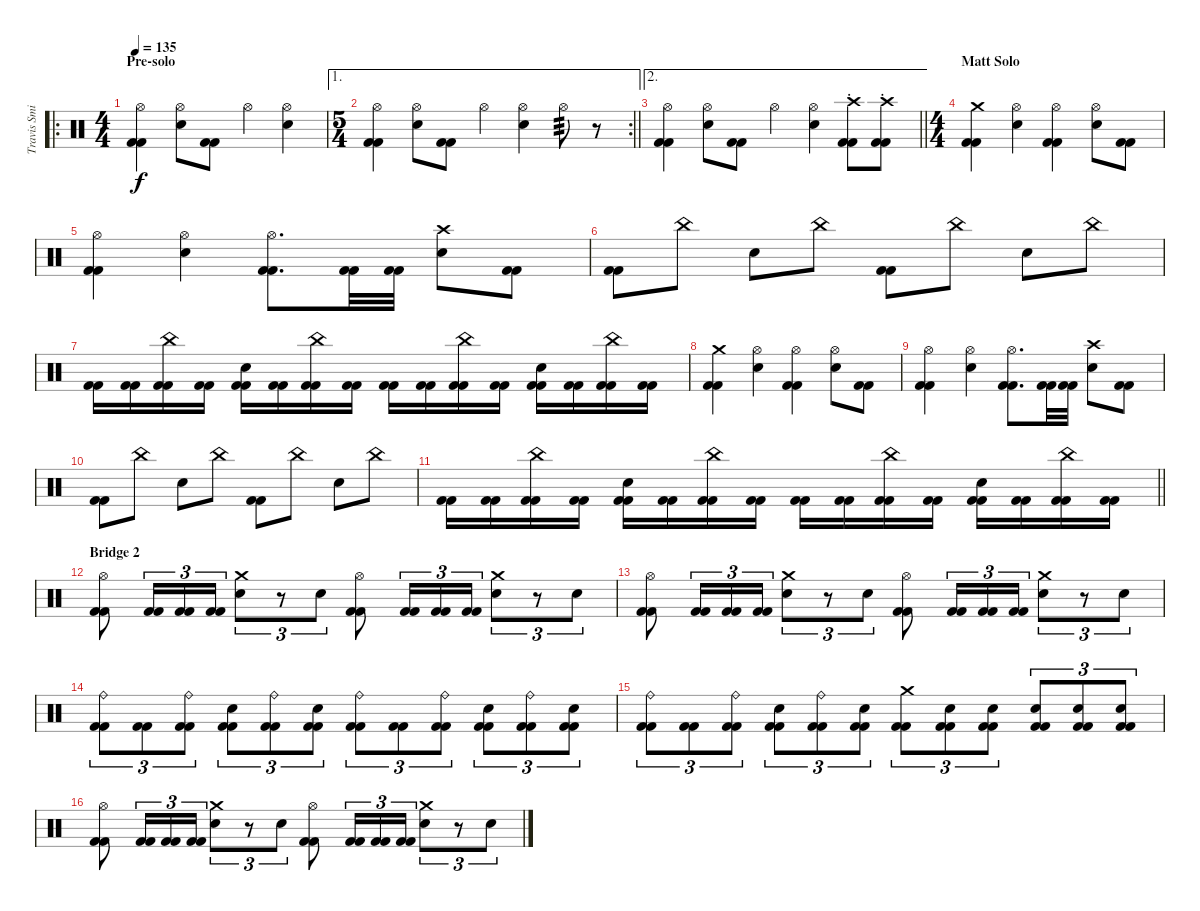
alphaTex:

\track ("Travis Smith" "Travis Smi") {instrument percussion}
\staff {score}
\articulation defaults
\ro
\ts (4 4)
\section ("" "Pre-solo")
\tempo 135
\clef neutral
\ks c
("Hi-Hat (open)" "Kick (hit) 2" "Kick (hit) 2").4{dy f} ("Hi-Hat (open)" "Electric Snare (hit)").8 ("Kick (hit) 2" "Kick (hit) 2").8 "Hi-Hat (open)".4 ("Hi-Hat (open)" "Electric Snare (hit)").4 |
\ae 1
\rc 2
\ts (5 4)
\barLineRight lightlight
("Hi-Hat (open)" "Kick (hit) 2" "Kick (hit) 2").4 ("Hi-Hat (open)" "Electric Snare (hit)").8 ("Kick (hit) 2" "Kick (hit) 2").8 "Hi-Hat (open)".4 ("Hi-Hat (open)" "Electric Snare (hit)").4 "Hi-Hat (open)".8{tp 3} r.8 |
\ae 2
\barLineRight lightlight
("Hi-Hat (open)" "Kick (hit) 2" "Kick (hit) 2").4 ("Hi-Hat (open)" "Electric Snare (hit)").8 ("Kick (hit) 2" "Kick (hit) 2").8 "Hi-Hat (open)".4 ("Hi-Hat (open)" "Electric Snare (hit)").4 ("Crash high (hit)"{st} "Kick (hit) 2" "Kick (hit) 2").8 ("Crash high (hit)"{st} "Kick (hit) 2" "Kick (hit) 2").8 |
\ts (4 4)
\section ("" "Matt Solo")
("Crash medium (hit)" "Kick (hit) 2" "Kick (hit) 2").4 ("Hi-Hat (open)" "Electric Snare (hit)").4 ("Hi-Hat (open)" "Kick (hit) 2" "Kick (hit) 2").4 ("Hi-Hat (open)" "Electric Snare (hit)").8 ("Kick (hit) 2" "Kick (hit) 2").8 |
("Hi-Hat (open)" "Kick (hit) 2" "Kick (hit) 2").4 ("Hi-Hat (open)" "Electric Snare (hit)").4 ("Hi-Hat (open)" "Kick (hit) 2" "Kick (hit) 2").8{d} ("Kick (hit) 2" "Kick (hit) 2").32 ("Kick (hit) 2" "Kick (hit) 2").32 ("Crash high (hit)" "Electric Snare (hit)").8 ("Kick (hit) 2" "Kick (hit) 2").8 |
("Kick (hit) 2" "Kick (hit) 2").8 "China (hit)".8 "Electric Snare (hit)".8 "China (hit)".8 ("Kick (hit) 2" "Kick (hit) 2").8 "China (hit)".8 "Electric Snare (hit)".8 "China (hit)".8 |
("Kick (hit) 2" "Kick (hit) 2").16 ("Kick (hit) 2" "Kick (hit) 2").16 ("China (hit)" "Kick (hit) 2" "Kick (hit) 2").16 ("Kick (hit) 2" "Kick (hit) 2").16 ("Electric Snare (hit)" "Kick (hit) 2" "Kick (hit) 2").16 ("Kick (hit) 2" "Kick (hit) 2").16 ("China (hit)" "Kick (hit) 2" "Kick (hit) 2").16 ("Kick (hit) 2" "Kick (hit) 2").16 ("Kick (hit) 2" "Kick (hit) 2").16 ("Kick (hit) 2" "Kick (hit) 2").16 ("China (hit)" "Kick (hit) 2" "Kick (hit) 2").16 ("Kick (hit) 2" "Kick (hit) 2").16 ("Electric Snare (hit)" "Kick (hit) 2" "Kick (hit) 2").16 ("Kick (hit) 2" "Kick (hit) 2").16 ("China (hit)" "Kick (hit) 2" "Kick (hit) 2").16 ("Kick (hit) 2" "Kick (hit) 2").16 |
("Crash medium (hit)" "Kick (hit) 2" "Kick (hit) 2").4 ("Hi-Hat (open)" "Electric Snare (hit)").4 ("Hi-Hat (open)" "Kick (hit) 2" "Kick (hit) 2").4 ("Hi-Hat (open)" "Electric Snare (hit)").8 ("Kick (hit) 2" "Kick (hit) 2").8 |
("Hi-Hat (open)" "Kick (hit) 2" "Kick (hit) 2").4 ("Hi-Hat (open)" "Electric Snare (hit)").4 ("Hi-Hat (open)" "Kick (hit) 2" "Kick (hit) 2").8{d} ("Kick (hit) 2" "Kick (hit) 2").32 ("Kick (hit) 2" "Kick (hit) 2").32 ("Crash high (hit)" "Electric Snare (hit)").8 ("Kick (hit) 2" "Kick (hit) 2").8 |
("Kick (hit) 2" "Kick (hit) 2").8 "China (hit)".8 "Electric Snare (hit)".8 "China (hit)".8 ("Kick (hit) 2" "Kick (hit) 2").8 "China (hit)".8 "Electric Snare (hit)".8 "China (hit)".8 |
\barLineRight lightlight
("Kick (hit) 2" "Kick (hit) 2").16 ("Kick (hit) 2" "Kick (hit) 2").16 ("China (hit)" "Kick (hit) 2" "Kick (hit) 2").16 ("Kick (hit) 2" "Kick (hit) 2").16 ("Electric Snare (hit)" "Kick (hit) 2" "Kick (hit) 2").16 ("Kick (hit) 2" "Kick (hit) 2").16 ("China (hit)" "Kick (hit) 2" "Kick (hit) 2").16 ("Kick (hit) 2" "Kick (hit) 2").16 ("Kick (hit) 2" "Kick (hit) 2").16 ("Kick (hit) 2" "Kick (hit) 2").16 ("China (hit)" "Kick (hit) 2" "Kick (hit) 2").16 ("Kick (hit) 2" "Kick (hit) 2").16 ("Electric Snare (hit)" "Kick (hit) 2" "Kick (hit) 2").16 ("Kick (hit) 2" "Kick (hit) 2").16 ("China (hit)" "Kick (hit) 2" "Kick (hit) 2").16 ("Kick (hit) 2" "Kick (hit) 2").16 |
\section ("" "Bridge 2")
("Hi-Hat (open)" "Kick (hit) 2" "Kick (hit) 2").8 ("Kick (hit) 2" "Kick (hit) 2").16{tu (3 2)} ("Kick (hit) 2" "Kick (hit) 2").16{tu (3 2)} ("Kick (hit) 2" "Kick (hit) 2").16{tu (3 2)} ("Crash medium (hit)" "Electric Snare (hit)").8{tu (3 2)} r.8{tu (3 2)} "Electric Snare (hit)".8{tu (3 2)} ("Hi-Hat (open)" "Kick (hit) 2" "Kick (hit) 2").8 ("Kick (hit) 2" "Kick (hit) 2").16{tu (3 2)} ("Kick (hit) 2" "Kick (hit) 2").16{tu (3 2)} ("Kick (hit) 2" "Kick (hit) 2").16{tu (3 2)} ("Crash medium (hit)" "Electric Snare (hit)").8{tu (3 2)} r.8{tu (3 2)} "Electric Snare (hit)".8{tu (3 2)} |
("Hi-Hat (open)" "Kick (hit) 2" "Kick (hit) 2").8 ("Kick (hit) 2" "Kick (hit) 2").16{tu (3 2)} ("Kick (hit) 2" "Kick (hit) 2").16{tu (3 2)} ("Kick (hit) 2" "Kick (hit) 2").16{tu (3 2)} ("Crash medium (hit)" "Electric Snare (hit)").8{tu (3 2)} r.8{tu (3 2)} "Electric Snare (hit)".8{tu (3 2)} ("Hi-Hat (open)" "Kick (hit) 2" "Kick (hit) 2").8 ("Kick (hit) 2" "Kick (hit) 2").16{tu (3 2)} ("Kick (hit) 2" "Kick (hit) 2").16{tu (3 2)} ("Kick (hit) 2" "Kick (hit) 2").16{tu (3 2)} ("Crash medium (hit)" "Electric Snare (hit)").8{tu (3 2)} r.8{tu (3 2)} "Electric Snare (hit)".8{tu (3 2)} |
("Ride (bell)" "Kick (hit) 2" "Kick (hit) 2").8{tu (3 2)} ("Kick (hit) 2" "Kick (hit) 2").8{tu (3 2)} ("Ride (bell)" "Kick (hit) 2" "Kick (hit) 2").8{tu (3 2)} ("Electric Snare (hit)" "Kick (hit) 2" "Kick (hit) 2").8{tu (3 2)} ("Ride (bell)" "Kick (hit) 2" "Kick (hit) 2").8{tu (3 2)} ("Electric Snare (hit)" "Kick (hit) 2" "Kick (hit) 2").8{tu (3 2)} ("Ride (bell)" "Kick (hit) 2" "Kick (hit) 2").8{tu (3 2)} ("Kick (hit) 2" "Kick (hit) 2").8{tu (3 2)} ("Ride (bell)" "Kick (hit) 2" "Kick (hit) 2").8{tu (3 2)} ("Electric Snare (hit)" "Kick (hit) 2" "Kick (hit) 2").8{tu (3 2)} ("Ride (bell)" "Kick (hit) 2" "Kick (hit) 2").8{tu (3 2)} ("Electric Snare (hit)" "Kick (hit) 2" "Kick (hit) 2").8{tu (3 2)} |
("Ride (bell)" "Kick (hit) 2" "Kick (hit) 2").8{tu (3 2)} ("Kick (hit) 2" "Kick (hit) 2").8{tu (3 2)} ("Ride (bell)" "Kick (hit) 2" "Kick (hit) 2").8{tu (3 2)} ("Electric Snare (hit)" "Kick (hit) 2" "Kick (hit) 2").8{tu (3 2)} ("Ride (bell)" "Kick (hit) 2" "Kick (hit) 2").8{tu (3 2)} ("Electric Snare (hit)" "Kick (hit) 2" "Kick (hit) 2").8{tu (3 2)} ("Crash medium (hit)" "Kick (hit) 2" "Kick (hit) 2").8{tu (3 2)} ("Electric Snare (hit)" "Kick (hit) 2" "Kick (hit) 2").8{tu (3 2)} ("Electric Snare (hit)" "Kick (hit) 2" "Kick (hit) 2").8{tu (3 2)} ("Electric Snare (hit)" "Kick (hit) 2" "Kick (hit) 2").8{tu (3 2)} ("Electric Snare (hit)" "Kick (hit) 2" "Kick (hit) 2").8{tu (3 2)} ("Electric Snare (hit)" "Kick (hit) 2" "Kick (hit) 2").8{tu (3 2)} |
("Hi-Hat (open)" "Kick (hit) 2" "Kick (hit) 2").8 ("Kick (hit) 2" "Kick (hit) 2").16{tu (3 2)} ("Kick (hit) 2" "Kick (hit) 2").16{tu (3 2)} ("Kick (hit) 2" "Kick (hit) 2").16{tu (3 2)} ("Crash medium (hit)" "Electric Snare (hit)").8{tu (3 2)} r.8{tu (3 2)} "Electric Snare (hit)".8{tu (3 2)} ("Hi-Hat (open)" "Kick (hit) 2" "Kick (hit) 2").8 ("Kick (hit) 2" "Kick (hit) 2").16{tu (3 2)} ("Kick (hit) 2" "Kick (hit) 2").16{tu (3 2)} ("Kick (hit) 2" "Kick (hit) 2").16{tu (3 2)} ("Crash medium (hit)" "Electric Snare (hit)").8{tu (3 2)} r.8{tu (3 2)} "Electric Snare (hit)".8{tu (3 2)}
